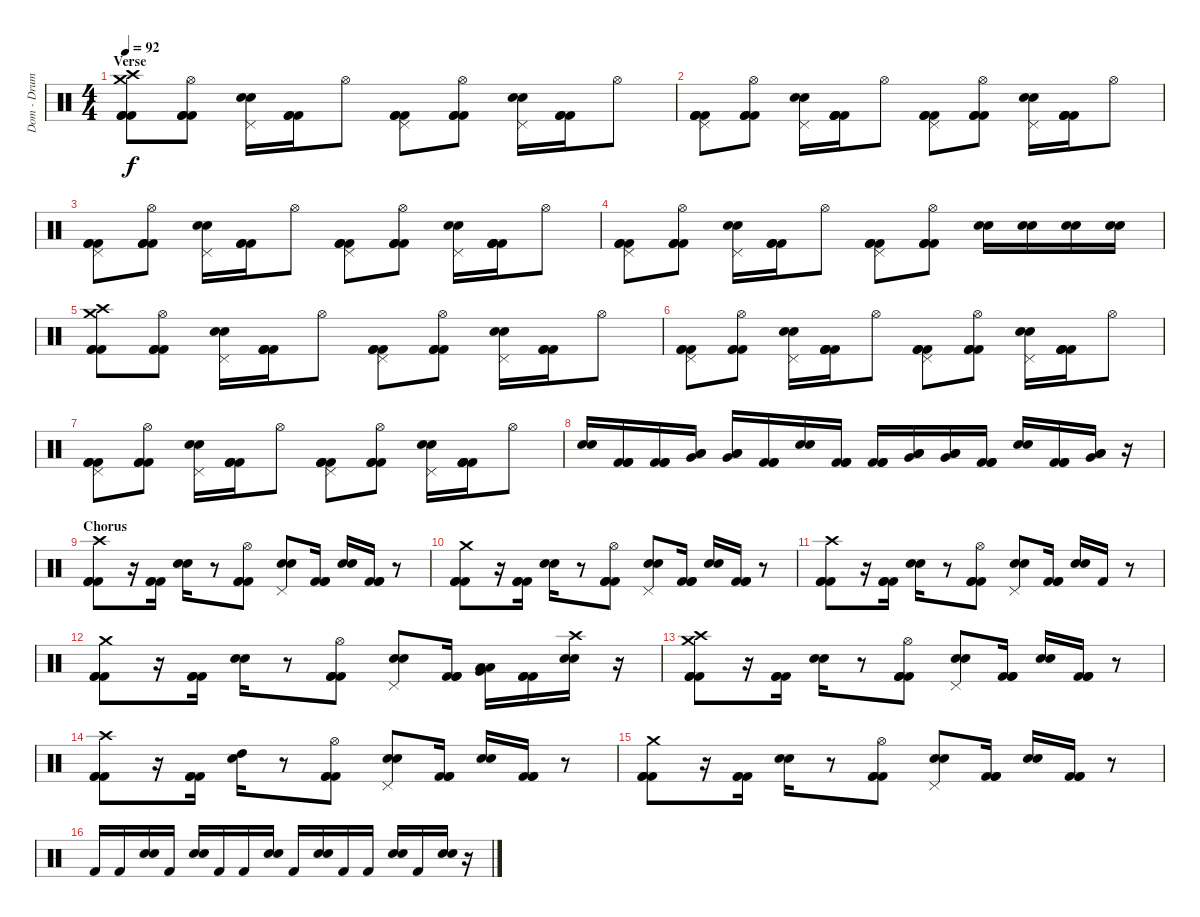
\track ("Dom - Drums " "Dom - Drum") {instrument percussion}
\staff {score}
\articulation defaults
\ts (4 4)
\section ("" "Verse")
\tempo 92
\clef neutral
\ks c
("Kick (hit) 2" "Kick (hit) 2" "Kick (hit) 2" "Crash high (hit)" "Crash medium (hit)").8{dy f} ("Hi-Hat (open)" "Kick (hit) 2" "Kick (hit) 2" "Kick (hit) 2").8 ("Pedal Hi-Hat (hit)" "Snare (hit) 2" "Electric Snare (hit)").16 ("Kick (hit) 2" "Kick (hit) 2" "Kick (hit) 2").16 "Hi-Hat (open)".8 ("Pedal Hi-Hat (hit)" "Kick (hit) 2" "Kick (hit) 2" "Kick (hit) 2").8 ("Hi-Hat (open)" "Kick (hit) 2" "Kick (hit) 2" "Kick (hit) 2").8 ("Pedal Hi-Hat (hit)" "Snare (hit) 2" "Electric Snare (hit)").16 ("Kick (hit) 2" "Kick (hit) 2" "Kick (hit) 2").16 "Hi-Hat (open)".8 |
("Kick (hit) 2" "Kick (hit) 2" "Kick (hit) 2" "Kick (hit) 2" "Pedal Hi-Hat (hit)").8 ("Hi-Hat (open)" "Kick (hit) 2" "Kick (hit) 2" "Kick (hit) 2").8 ("Pedal Hi-Hat (hit)" "Snare (hit) 2" "Electric Snare (hit)").16 ("Kick (hit) 2" "Kick (hit) 2" "Kick (hit) 2" "Kick (hit) 2").16 "Hi-Hat (open)".8 ("Kick (hit) 2" "Pedal Hi-Hat (hit)" "Kick (hit) 2" "Kick (hit) 2").8 ("Hi-Hat (open)" "Kick (hit) 2" "Kick (hit) 2" "Kick (hit) 2").8 ("Pedal Hi-Hat (hit)" "Snare (hit) 2" "Electric Snare (hit)").16 ("Kick (hit) 2" "Kick (hit) 2" "Kick (hit) 2" "Kick (hit) 2").16 "Hi-Hat (open)".8 |
("Pedal Hi-Hat (hit)" "Kick (hit) 2" "Kick (hit) 2" "Kick (hit) 2").8 ("Hi-Hat (open)" "Kick (hit) 2" "Kick (hit) 2" "Kick (hit) 2").8 ("Pedal Hi-Hat (hit)" "Snare (hit) 2" "Electric Snare (hit)").16 ("Kick (hit) 2" "Kick (hit) 2" "Kick (hit) 2").16 "Hi-Hat (open)".8 ("Pedal Hi-Hat (hit)" "Kick (hit) 2" "Kick (hit) 2" "Kick (hit) 2").8 ("Hi-Hat (open)" "Kick (hit) 2" "Kick (hit) 2" "Kick (hit) 2").8 ("Pedal Hi-Hat (hit)" "Snare (hit) 2" "Electric Snare (hit)").16 ("Kick (hit) 2" "Kick (hit) 2" "Kick (hit) 2" "Kick (hit) 2").16 "Hi-Hat (open)".8 |
("Pedal Hi-Hat (hit)" "Kick (hit) 2" "Kick (hit) 2" "Kick (hit) 2").8 ("Hi-Hat (open)" "Kick (hit) 2" "Kick (hit) 2" "Kick (hit) 2").8 ("Pedal Hi-Hat (hit)" "Snare (hit) 2" "Electric Snare (hit)").16 ("Kick (hit) 2" "Kick (hit) 2" "Kick (hit) 2").16 "Hi-Hat (open)".8 ("Pedal Hi-Hat (hit)" "Kick (hit) 2" "Kick (hit) 2" "Kick (hit) 2").8 ("Hi-Hat (open)" "Kick (hit) 2" "Kick (hit) 2" "Kick (hit) 2").8 ("Snare (hit) 2" "Electric Snare (hit)").16 ("Snare (hit) 2" "Electric Snare (hit)").16 ("Snare (hit) 2" "Electric Snare (hit)").16 ("Snare (hit) 2" "Electric Snare (hit)").16 |
("Crash high (hit)" "Crash medium (hit)" "Kick (hit) 2" "Kick (hit) 2" "Kick (hit) 2").8 ("Hi-Hat (open)" "Kick (hit) 2" "Kick (hit) 2" "Kick (hit) 2").8 ("Pedal Hi-Hat (hit)" "Snare (hit) 2" "Electric Snare (hit)").16 ("Kick (hit) 2" "Kick (hit) 2" "Kick (hit) 2" "Kick (hit) 2").16 "Hi-Hat (open)".8 ("Pedal Hi-Hat (hit)" "Kick (hit) 2" "Kick (hit) 2" "Kick (hit) 2").8 ("Hi-Hat (open)" "Kick (hit) 2" "Kick (hit) 2" "Kick (hit) 2").8 ("Pedal Hi-Hat (hit)" "Snare (hit) 2" "Electric Snare (hit)").16 ("Kick (hit) 2" "Kick (hit) 2" "Kick (hit) 2").16 "Hi-Hat (open)".8 |
("Pedal Hi-Hat (hit)" "Kick (hit) 2" "Kick (hit) 2" "Kick (hit) 2").8 ("Hi-Hat (open)" "Kick (hit) 2" "Kick (hit) 2" "Kick (hit) 2").8 ("Pedal Hi-Hat (hit)" "Snare (hit) 2" "Electric Snare (hit)").16 ("Kick (hit) 2" "Kick (hit) 2" "Kick (hit) 2" "Kick (hit) 2").16 "Hi-Hat (open)".8 ("Pedal Hi-Hat (hit)" "Kick (hit) 2" "Kick (hit) 2" "Kick (hit) 2").8 ("Hi-Hat (open)" "Kick (hit) 2" "Kick (hit) 2" "Kick (hit) 2").8 ("Pedal Hi-Hat (hit)" "Snare (hit) 2" "Electric Snare (hit)").16 ("Kick (hit) 2" "Kick (hit) 2" "Kick (hit) 2" "Kick (hit) 2").16 "Hi-Hat (open)".8 |
("Pedal Hi-Hat (hit)" "Kick (hit) 2" "Kick (hit) 2" "Kick (hit) 2").8 ("Hi-Hat (open)" "Kick (hit) 2" "Kick (hit) 2" "Kick (hit) 2").8 ("Pedal Hi-Hat (hit)" "Snare (hit) 2" "Electric Snare (hit)").16 ("Kick (hit) 2" "Kick (hit) 2" "Kick (hit) 2" "Kick (hit) 2").16 "Hi-Hat (open)".8 ("Pedal Hi-Hat (hit)" "Kick (hit) 2" "Kick (hit) 2" "Kick (hit) 2").8 ("Hi-Hat (open)" "Kick (hit) 2" "Kick (hit) 2" "Kick (hit) 2").8 ("Pedal Hi-Hat (hit)" "Snare (hit) 2" "Electric Snare (hit)").16 ("Kick (hit) 2" "Kick (hit) 2" "Kick (hit) 2" "Kick (hit) 2").16 "Hi-Hat (open)".8 |
("Electric Snare (hit)" "Snare (hit) 2").16 ("Kick (hit) 2" "Kick (hit) 2" "Kick (hit) 2").16 ("Kick (hit) 2" "Kick (hit) 2" "Kick (hit) 2").16 ("Low Tom (hit)" "Very Low Tom (hit)" "Low Floor Tom (hit)").16 ("Low Tom (hit)" "Very Low Tom (hit)" "Low Floor Tom (hit)").16 ("Kick (hit) 2" "Kick (hit) 2" "Kick (hit) 2").16 ("Electric Snare (hit)" "Snare (hit) 2").16 ("Kick (hit) 2" "Kick (hit) 2" "Kick (hit) 2").16 ("Kick (hit) 2" "Kick (hit) 2" "Kick (hit) 2").16 ("Low Tom (hit)" "Very Low Tom (hit)" "Low Floor Tom (hit)").16 ("Low Tom (hit)" "Very Low Tom (hit)" "Low Floor Tom (hit)").16 ("Kick (hit) 2" "Kick (hit) 2" "Kick (hit) 2").16 ("Electric Snare (hit)" "Snare (hit) 2").16 ("Kick (hit) 2" "Kick (hit) 2" "Kick (hit) 2").16 ("Low Tom (hit)" "Very Low Tom (hit)" "Low Floor Tom (hit)").16 r.16 |
\section ("" "Chorus")
("Crash high (hit)" "Kick (hit) 2" "Kick (hit) 2" "Kick (hit) 2").8 r.16 ("Kick (hit) 2" "Kick (hit) 2" "Kick (hit) 2").16 ("Snare (hit) 2" "Electric Snare (hit)").16 r.8 ("Hi-Hat (open)" "Kick (hit) 2" "Kick (hit) 2" "Kick (hit) 2").8 ("Pedal Hi-Hat (hit)" "Snare (hit) 2" "Electric Snare (hit)").8 ("Kick (hit) 2" "Kick (hit) 2" "Kick (hit) 2").16 ("Snare (hit) 2" "Electric Snare (hit)").16 ("Kick (hit) 2" "Kick (hit) 2" "Kick (hit) 2").16 r.8 |
("Crash medium (hit)" "Kick (hit) 2" "Kick (hit) 2" "Kick (hit) 2").8 r.16 ("Kick (hit) 2" "Kick (hit) 2" "Kick (hit) 2").16 ("Snare (hit) 2" "Electric Snare (hit)").16 r.8 ("Hi-Hat (open)" "Kick (hit) 2" "Kick (hit) 2" "Kick (hit) 2").8 ("Pedal Hi-Hat (hit)" "Snare (hit) 2" "Electric Snare (hit)").8 ("Kick (hit) 2" "Kick (hit) 2" "Kick (hit) 2").16 ("Snare (hit) 2" "Electric Snare (hit)").16 ("Kick (hit) 2" "Kick (hit) 2" "Kick (hit) 2").16 r.8 |
("Crash high (hit)" "Kick (hit) 2" "Kick (hit) 2" "Kick (hit) 2").8 r.16 ("Kick (hit) 2" "Kick (hit) 2" "Kick (hit) 2").16 ("Snare (hit) 2" "Electric Snare (hit)").16 r.8 ("Hi-Hat (open)" "Kick (hit) 2" "Kick (hit) 2" "Kick (hit) 2").8 ("Pedal Hi-Hat (hit)" "Snare (hit) 2" "Electric Snare (hit)").8 ("Kick (hit) 2" "Kick (hit) 2" "Kick (hit) 2").16 ("Snare (hit) 2" "Electric Snare (hit)").16 "Kick (hit) 2".16 r.8 |
("Crash medium (hit)" "Kick (hit) 2" "Kick (hit) 2" "Kick (hit) 2").8 r.16 ("Kick (hit) 2" "Kick (hit) 2" "Kick (hit) 2").16 ("Snare (hit) 2" "Electric Snare (hit)").16 r.8 ("Hi-Hat (open)" "Kick (hit) 2" "Kick (hit) 2" "Kick (hit) 2").8 ("Pedal Hi-Hat (hit)" "Snare (hit) 2" "Electric Snare (hit)").8 ("Kick (hit) 2" "Kick (hit) 2" "Kick (hit) 2").16 ("Low Floor Tom (hit)" "Low Floor Tom (hit)" "Very Low Tom (hit)").16 ("Kick (hit) 2" "Kick (hit) 2" "Kick (hit) 2").16 ("Crash high (hit)" "Snare (hit) 2" "Electric Snare (hit)").16 r.16 |
("Crash medium (hit)" "Crash high (hit)" "Kick (hit) 2" "Kick (hit) 2" "Kick (hit) 2").8 r.16 ("Kick (hit) 2" "Kick (hit) 2" "Kick (hit) 2").16 ("Snare (hit) 2" "Electric Snare (hit)").16 r.8 ("Hi-Hat (open)" "Kick (hit) 2" "Kick (hit) 2" "Kick (hit) 2").8 ("Pedal Hi-Hat (hit)" "Snare (hit) 2" "Electric Snare (hit)").8 ("Kick (hit) 2" "Kick (hit) 2" "Kick (hit) 2").16 ("Snare (hit) 2" "Electric Snare (hit)").16 ("Kick (hit) 2" "Kick (hit) 2" "Kick (hit) 2").16 r.8 |
("Crash high (hit)" "Kick (hit) 2" "Kick (hit) 2" "Kick (hit) 2").8 r.16 ("Kick (hit) 2" "Kick (hit) 2" "Kick (hit) 2").16 ("Snare (hit) 2" "High Tom (hit)").16 r.8 ("Hi-Hat (open)" "Kick (hit) 2" "Kick (hit) 2" "Kick (hit) 2").8 ("Pedal Hi-Hat (hit)" "Snare (hit) 2" "Electric Snare (hit)").8 ("Kick (hit) 2" "Kick (hit) 2" "Kick (hit) 2").16 ("Snare (hit) 2" "Electric Snare (hit)").16 ("Kick (hit) 2" "Kick (hit) 2" "Kick (hit) 2").16 r.8 |
("Crash medium (hit)" "Kick (hit) 2" "Kick (hit) 2" "Kick (hit) 2").8 r.16 ("Kick (hit) 2" "Kick (hit) 2" "Kick (hit) 2").16 ("Snare (hit) 2" "Electric Snare (hit)").16 r.8 ("Hi-Hat (open)" "Kick (hit) 2" "Kick (hit) 2" "Kick (hit) 2").8 ("Pedal Hi-Hat (hit)" "Snare (hit) 2" "Electric Snare (hit)").8 ("Kick (hit) 2" "Kick (hit) 2" "Kick (hit) 2").16 ("Snare (hit) 2" "Electric Snare (hit)").16 ("Kick (hit) 2" "Kick (hit) 2" "Kick (hit) 2").16 r.8 |
"Kick (hit) 2".16 "Kick (hit) 2".16 ("Snare (hit) 2" "Electric Snare (hit)").16 "Kick (hit) 2".16 ("Snare (hit) 2" "Electric Snare (hit)").16 "Kick (hit) 2".16 "Kick (hit) 2".16 ("Snare (hit) 2" "Electric Snare (hit)").16 "Kick (hit) 2".16 ("Snare (hit) 2" "Electric Snare (hit)").16 "Kick (hit) 2".16 "Kick (hit) 2".16 ("Snare (hit) 2" "Electric Snare (hit)").16 "Kick (hit) 2".16 ("Snare (hit) 2" "Electric Snare (hit)").16 r.16
